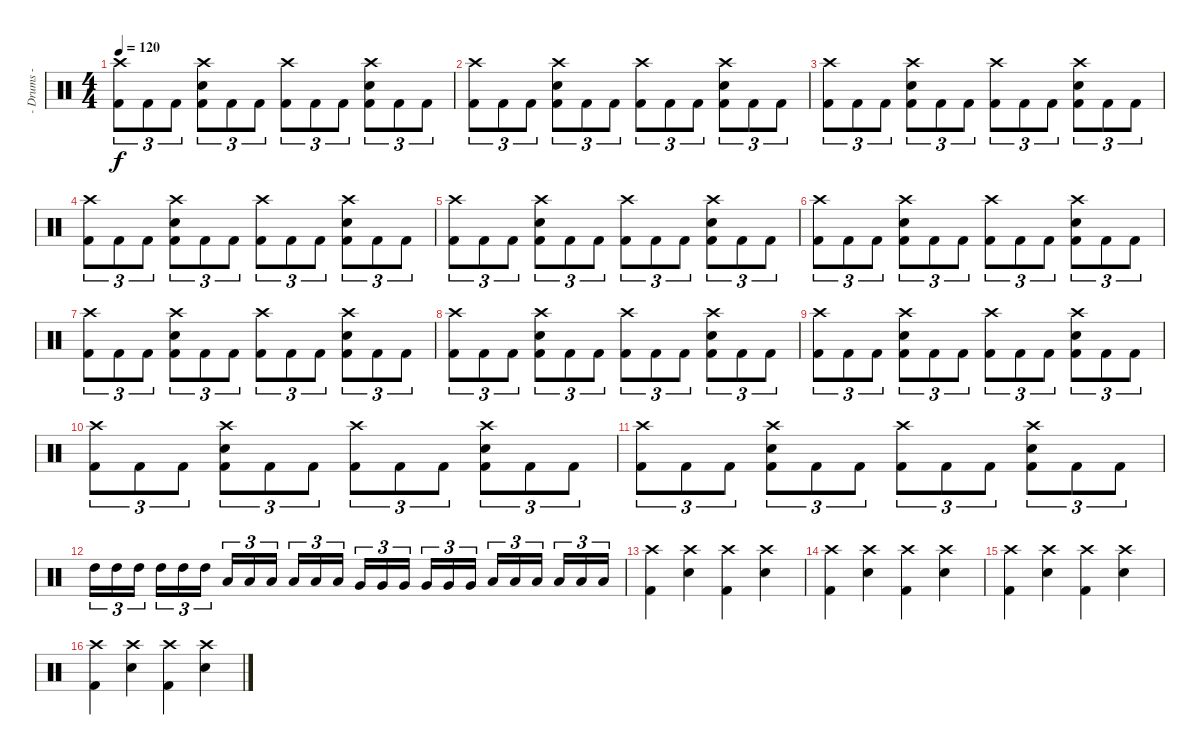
\track ("- Drums -" "- Drums -") {instrument percussion}
\staff {score}
\articulation defaults
\ts (4 4)
\tempo 120
\clef neutral
\ks c
("Crash high (hit)" "Kick (hit) 2").8{tu (3 2) dy f} "Kick (hit) 2".8{tu (3 2)} "Kick (hit) 2".8{tu (3 2)} ("Crash high (hit)" "Electric Snare (hit)" "Kick (hit) 2").8{tu (3 2)} "Kick (hit) 2".8{tu (3 2)} "Kick (hit) 2".8{tu (3 2)} ("Crash high (hit)" "Kick (hit) 2").8{tu (3 2)} "Kick (hit) 2".8{tu (3 2)} "Kick (hit) 2".8{tu (3 2)} ("Crash high (hit)" "Electric Snare (hit)" "Kick (hit) 2").8{tu (3 2)} "Kick (hit) 2".8{tu (3 2)} "Kick (hit) 2".8{tu (3 2)} |
("Crash high (hit)" "Kick (hit) 2").8{tu (3 2)} "Kick (hit) 2".8{tu (3 2)} "Kick (hit) 2".8{tu (3 2)} ("Crash high (hit)" "Electric Snare (hit)" "Kick (hit) 2").8{tu (3 2)} "Kick (hit) 2".8{tu (3 2)} "Kick (hit) 2".8{tu (3 2)} ("Crash high (hit)" "Kick (hit) 2").8{tu (3 2)} "Kick (hit) 2".8{tu (3 2)} "Kick (hit) 2".8{tu (3 2)} ("Crash high (hit)" "Electric Snare (hit)" "Kick (hit) 2").8{tu (3 2)} "Kick (hit) 2".8{tu (3 2)} "Kick (hit) 2".8{tu (3 2)} |
("Crash high (hit)" "Kick (hit) 2").8{tu (3 2)} "Kick (hit) 2".8{tu (3 2)} "Kick (hit) 2".8{tu (3 2)} ("Crash high (hit)" "Electric Snare (hit)" "Kick (hit) 2").8{tu (3 2)} "Kick (hit) 2".8{tu (3 2)} "Kick (hit) 2".8{tu (3 2)} ("Crash high (hit)" "Kick (hit) 2").8{tu (3 2)} "Kick (hit) 2".8{tu (3 2)} "Kick (hit) 2".8{tu (3 2)} ("Crash high (hit)" "Electric Snare (hit)" "Kick (hit) 2").8{tu (3 2)} "Kick (hit) 2".8{tu (3 2)} "Kick (hit) 2".8{tu (3 2)} |
("Crash high (hit)" "Kick (hit) 2").8{tu (3 2)} "Kick (hit) 2".8{tu (3 2)} "Kick (hit) 2".8{tu (3 2)} ("Crash high (hit)" "Electric Snare (hit)" "Kick (hit) 2").8{tu (3 2)} "Kick (hit) 2".8{tu (3 2)} "Kick (hit) 2".8{tu (3 2)} ("Crash high (hit)" "Kick (hit) 2").8{tu (3 2)} "Kick (hit) 2".8{tu (3 2)} "Kick (hit) 2".8{tu (3 2)} ("Crash high (hit)" "Electric Snare (hit)" "Kick (hit) 2").8{tu (3 2)} "Kick (hit) 2".8{tu (3 2)} "Kick (hit) 2".8{tu (3 2)} |
("Crash high (hit)" "Kick (hit) 2").8{tu (3 2)} "Kick (hit) 2".8{tu (3 2)} "Kick (hit) 2".8{tu (3 2)} ("Crash high (hit)" "Electric Snare (hit)" "Kick (hit) 2").8{tu (3 2)} "Kick (hit) 2".8{tu (3 2)} "Kick (hit) 2".8{tu (3 2)} ("Crash high (hit)" "Kick (hit) 2").8{tu (3 2)} "Kick (hit) 2".8{tu (3 2)} "Kick (hit) 2".8{tu (3 2)} ("Crash high (hit)" "Electric Snare (hit)" "Kick (hit) 2").8{tu (3 2)} "Kick (hit) 2".8{tu (3 2)} "Kick (hit) 2".8{tu (3 2)} |
("Crash high (hit)" "Kick (hit) 2").8{tu (3 2)} "Kick (hit) 2".8{tu (3 2)} "Kick (hit) 2".8{tu (3 2)} ("Crash high (hit)" "Electric Snare (hit)" "Kick (hit) 2").8{tu (3 2)} "Kick (hit) 2".8{tu (3 2)} "Kick (hit) 2".8{tu (3 2)} ("Crash high (hit)" "Kick (hit) 2").8{tu (3 2)} "Kick (hit) 2".8{tu (3 2)} "Kick (hit) 2".8{tu (3 2)} ("Crash high (hit)" "Electric Snare (hit)" "Kick (hit) 2").8{tu (3 2)} "Kick (hit) 2".8{tu (3 2)} "Kick (hit) 2".8{tu (3 2)} |
("Crash high (hit)" "Kick (hit) 2").8{tu (3 2)} "Kick (hit) 2".8{tu (3 2)} "Kick (hit) 2".8{tu (3 2)} ("Crash high (hit)" "Electric Snare (hit)" "Kick (hit) 2").8{tu (3 2)} "Kick (hit) 2".8{tu (3 2)} "Kick (hit) 2".8{tu (3 2)} ("Crash high (hit)" "Kick (hit) 2").8{tu (3 2)} "Kick (hit) 2".8{tu (3 2)} "Kick (hit) 2".8{tu (3 2)} ("Crash high (hit)" "Electric Snare (hit)" "Kick (hit) 2").8{tu (3 2)} "Kick (hit) 2".8{tu (3 2)} "Kick (hit) 2".8{tu (3 2)} |
("Crash high (hit)" "Kick (hit) 2").8{tu (3 2)} "Kick (hit) 2".8{tu (3 2)} "Kick (hit) 2".8{tu (3 2)} ("Crash high (hit)" "Electric Snare (hit)" "Kick (hit) 2").8{tu (3 2)} "Kick (hit) 2".8{tu (3 2)} "Kick (hit) 2".8{tu (3 2)} ("Crash high (hit)" "Kick (hit) 2").8{tu (3 2)} "Kick (hit) 2".8{tu (3 2)} "Kick (hit) 2".8{tu (3 2)} ("Crash high (hit)" "Electric Snare (hit)" "Kick (hit) 2").8{tu (3 2)} "Kick (hit) 2".8{tu (3 2)} "Kick (hit) 2".8{tu (3 2)} |
("Crash high (hit)" "Kick (hit) 2").8{tu (3 2)} "Kick (hit) 2".8{tu (3 2)} "Kick (hit) 2".8{tu (3 2)} ("Crash high (hit)" "Electric Snare (hit)" "Kick (hit) 2").8{tu (3 2)} "Kick (hit) 2".8{tu (3 2)} "Kick (hit) 2".8{tu (3 2)} ("Crash high (hit)" "Kick (hit) 2").8{tu (3 2)} "Kick (hit) 2".8{tu (3 2)} "Kick (hit) 2".8{tu (3 2)} ("Crash high (hit)" "Electric Snare (hit)" "Kick (hit) 2").8{tu (3 2)} "Kick (hit) 2".8{tu (3 2)} "Kick (hit) 2".8{tu (3 2)} |
("Crash high (hit)" "Kick (hit) 2").8{tu (3 2)} "Kick (hit) 2".8{tu (3 2)} "Kick (hit) 2".8{tu (3 2)} ("Crash high (hit)" "Electric Snare (hit)" "Kick (hit) 2").8{tu (3 2)} "Kick (hit) 2".8{tu (3 2)} "Kick (hit) 2".8{tu (3 2)} ("Crash high (hit)" "Kick (hit) 2").8{tu (3 2)} "Kick (hit) 2".8{tu (3 2)} "Kick (hit) 2".8{tu (3 2)} ("Crash high (hit)" "Electric Snare (hit)" "Kick (hit) 2").8{tu (3 2)} "Kick (hit) 2".8{tu (3 2)} "Kick (hit) 2".8{tu (3 2)} |
("Crash high (hit)" "Kick (hit) 2").8{tu (3 2)} "Kick (hit) 2".8{tu (3 2)} "Kick (hit) 2".8{tu (3 2)} ("Crash high (hit)" "Electric Snare (hit)" "Kick (hit) 2").8{tu (3 2)} "Kick (hit) 2".8{tu (3 2)} "Kick (hit) 2".8{tu (3 2)} ("Crash high (hit)" "Kick (hit) 2").8{tu (3 2)} "Kick (hit) 2".8{tu (3 2)} "Kick (hit) 2".8{tu (3 2)} ("Crash high (hit)" "Electric Snare (hit)" "Kick (hit) 2").8{tu (3 2)} "Kick (hit) 2".8{tu (3 2)} "Kick (hit) 2".8{tu (3 2)} |
"High Tom (hit)".16{tu (3 2)} "High Tom (hit)".16{tu (3 2)} "High Tom (hit)".16{tu (3 2)} "High Tom (hit)".16{tu (3 2)} "High Tom (hit)".16{tu (3 2)} "High Tom (hit)".16{tu (3 2)} "Low Tom (hit)".16{tu (3 2)} "Low Tom (hit)".16{tu (3 2)} "Low Tom (hit)".16{tu (3 2)} "Low Tom (hit)".16{tu (3 2)} "Low Tom (hit)".16{tu (3 2)} "Low Tom (hit)".16{tu (3 2)} "Very Low Tom (hit)".16{tu (3 2)} "Very Low Tom (hit)".16{tu (3 2)} "Very Low Tom (hit)".16{tu (3 2)} "Very Low Tom (hit)".16{tu (3 2)} "Very Low Tom (hit)".16{tu (3 2)} "Very Low Tom (hit)".16{tu (3 2)} "Low Floor Tom (hit)".16{tu (3 2)} "Low Floor Tom (hit)".16{tu (3 2)} "Low Floor Tom (hit)".16{tu (3 2)} "Low Floor Tom (hit)".16{tu (3 2)} "Low Floor Tom (hit)".16{tu (3 2)} "Low Floor Tom (hit)".16{tu (3 2)} |
("Crash high (hit)" "Kick (hit) 2").4 ("Crash high (hit)" "Electric Snare (hit)").4 ("Crash high (hit)" "Kick (hit) 2").4 ("Crash high (hit)" "Electric Snare (hit)").4 |
("Crash high (hit)" "Kick (hit) 2").4 ("Crash high (hit)" "Electric Snare (hit)").4 ("Crash high (hit)" "Kick (hit) 2").4 ("Crash high (hit)" "Electric Snare (hit)").4 |
("Crash high (hit)" "Kick (hit) 2").4 ("Crash high (hit)" "Electric Snare (hit)").4 ("Crash high (hit)" "Kick (hit) 2").4 ("Crash high (hit)" "Electric Snare (hit)").4 |
("Crash high (hit)" "Kick (hit) 2").4 ("Crash high (hit)" "Electric Snare (hit)").4 ("Crash high (hit)" "Kick (hit) 2").4 ("Crash high (hit)" "Electric Snare (hit)").4
